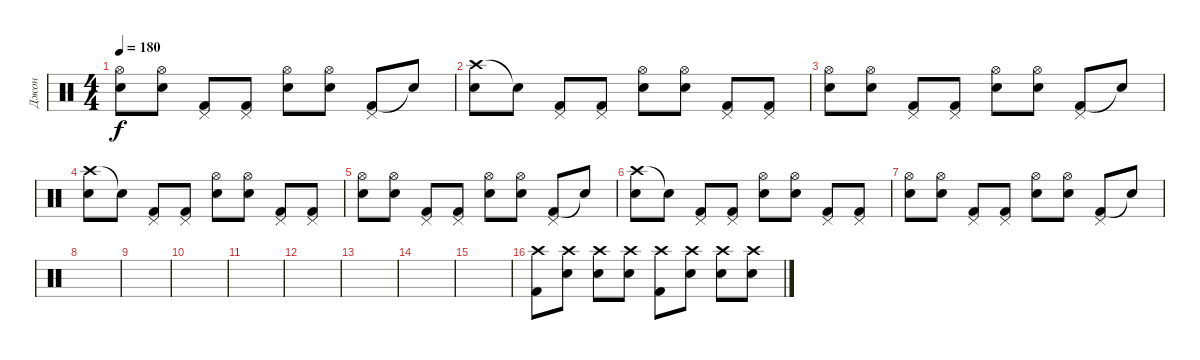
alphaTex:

\track ("Джон" "Джон") {instrument percussion}
\staff {score}
\articulation defaults
\ts (4 4)
\tempo 180
\clef neutral
\ks c
("Snare (hit) 2" "Hi-Hat (open)").8{dy f} ("Snare (hit) 2" "Hi-Hat (open)").8 ("Kick (hit) 2" "Pedal Hi-Hat (hit)").8 ("Kick (hit) 2" "Pedal Hi-Hat (hit)").8 ("Snare (hit) 2" "Hi-Hat (open)").8 ("Snare (hit) 2" "Hi-Hat (open)").8 ("Kick (hit) 2" "Pedal Hi-Hat (hit)").8 "Snare (hit)"{t}.8 |
("Crash high (hit)" "Electric Snare (hit)").8 "Snare (hit)"{t}.8 ("Kick (hit) 2" "Pedal Hi-Hat (hit)").8 ("Kick (hit) 2" "Pedal Hi-Hat (hit)").8 ("Snare (hit) 2" "Hi-Hat (open)").8 ("Snare (hit) 2" "Hi-Hat (open)").8 ("Kick (hit) 2" "Pedal Hi-Hat (hit)").8 ("Kick (hit) 2" "Pedal Hi-Hat (hit)").8 |
("Snare (hit) 2" "Hi-Hat (open)").8 ("Snare (hit) 2" "Hi-Hat (open)").8 ("Kick (hit) 2" "Pedal Hi-Hat (hit)").8 ("Kick (hit) 2" "Pedal Hi-Hat (hit)").8 ("Snare (hit) 2" "Hi-Hat (open)").8 ("Snare (hit) 2" "Hi-Hat (open)").8 ("Kick (hit) 2" "Pedal Hi-Hat (hit)").8 "Snare (hit)"{t}.8 |
("Crash high (hit)" "Electric Snare (hit)").8 "Snare (hit)"{t}.8 ("Kick (hit) 2" "Pedal Hi-Hat (hit)").8 ("Kick (hit) 2" "Pedal Hi-Hat (hit)").8 ("Snare (hit) 2" "Hi-Hat (open)").8 ("Snare (hit) 2" "Hi-Hat (open)").8 ("Kick (hit) 2" "Pedal Hi-Hat (hit)").8 ("Kick (hit) 2" "Pedal Hi-Hat (hit)").8 |
("Snare (hit) 2" "Hi-Hat (open)").8 ("Snare (hit) 2" "Hi-Hat (open)").8 ("Kick (hit) 2" "Pedal Hi-Hat (hit)").8 ("Kick (hit) 2" "Pedal Hi-Hat (hit)").8 ("Snare (hit) 2" "Hi-Hat (open)").8 ("Snare (hit) 2" "Hi-Hat (open)").8 ("Kick (hit) 2" "Pedal Hi-Hat (hit)").8 "Snare (hit)"{t}.8 |
("Crash high (hit)" "Electric Snare (hit)").8 "Snare (hit)"{t}.8 ("Kick (hit) 2" "Pedal Hi-Hat (hit)").8 ("Kick (hit) 2" "Pedal Hi-Hat (hit)").8 ("Snare (hit) 2" "Hi-Hat (open)").8 ("Snare (hit) 2" "Hi-Hat (open)").8 ("Kick (hit) 2" "Pedal Hi-Hat (hit)").8 ("Kick (hit) 2" "Pedal Hi-Hat (hit)").8 |
("Snare (hit) 2" "Hi-Hat (open)").8 ("Snare (hit) 2" "Hi-Hat (open)").8 ("Kick (hit) 2" "Pedal Hi-Hat (hit)").8 ("Kick (hit) 2" "Pedal Hi-Hat (hit)").8 ("Snare (hit) 2" "Hi-Hat (open)").8 ("Snare (hit) 2" "Hi-Hat (open)").8 ("Kick (hit) 2" "Pedal Hi-Hat (hit)").8 "Snare (hit)"{t}.8 |
|
|
|
|
|
|
|
|
("Kick (hit) 2" "Crash high (hit)").8 ("Snare (hit)" "Crash high (hit)").8 ("Electric Snare (hit)" "Crash high (hit)").8 ("Snare (hit)" "Crash high (hit)").8 ("Kick (hit) 2" "Crash high (hit)").8 ("Snare (hit)" "Crash high (hit)").8 ("Electric Snare (hit)" "Crash high (hit)").8 ("Snare (hit)" "Crash high (hit)").8
